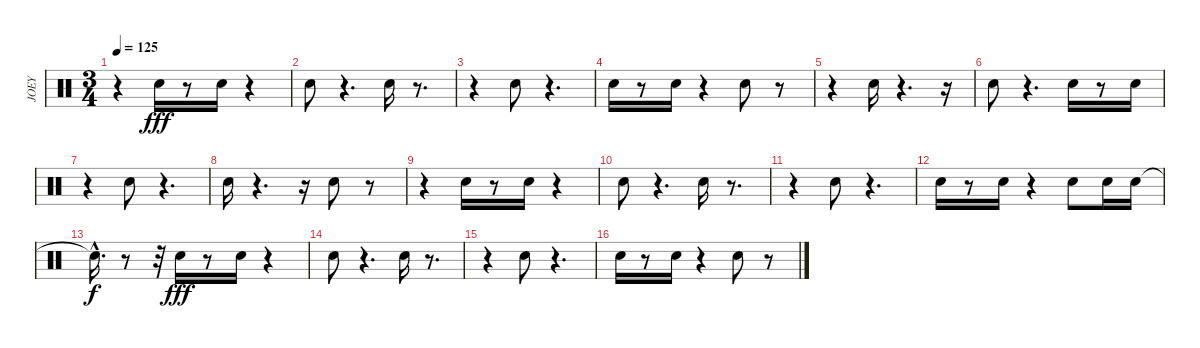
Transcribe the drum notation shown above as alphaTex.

\track ("JOEY" "JOEY") {instrument percussion}
\staff {score}
\articulation defaults
\ts (3 4)
\tempo 125
\clef neutral
\ks c
r.4{dy fff} "Snare (hit) 2".16 r.8 "Snare (hit) 2".16 r.4 |
"Snare (hit) 2".8 r.4{d} "Snare (hit) 2".16 r.8{d} |
r.4 "Snare (hit) 2".8 r.4{d} |
"Snare (hit) 2".16 r.8 "Snare (hit) 2".16 r.4 "Snare (hit) 2".8 r.8 |
r.4 "Snare (hit) 2".16 r.4{d} r.16 |
"Snare (hit) 2".8 r.4{d} "Snare (hit) 2".16 r.8 "Snare (hit) 2".16 |
r.4 "Snare (hit) 2".8 r.4{d} |
"Snare (hit) 2".16 r.4{d} r.16 "Snare (hit) 2".8 r.8 |
r.4 "Snare (hit) 2".16 r.8 "Snare (hit) 2".16 r.4 |
"Snare (hit) 2".8 r.4{d} "Snare (hit) 2".16 r.8{d} |
r.4 "Snare (hit) 2".8 r.4{d} |
"Snare (hit) 2".16 r.8 "Snare (hit) 2".16 r.4 "Snare (hit) 2".8 "Snare (hit) 2".16 "Snare (hit) 2".16 |
"Snare (hit)"{hac t}.16{d dy f} r.8 r.32 "Snare (hit) 2".16{dy fff} r.8 "Snare (hit) 2".16 r.4 |
"Snare (hit) 2".8 r.4{d} "Snare (hit) 2".16 r.8{d} |
r.4 "Snare (hit) 2".8 r.4{d} |
"Snare (hit) 2".16 r.8 "Snare (hit) 2".16 r.4 "Snare (hit) 2".8 r.8
